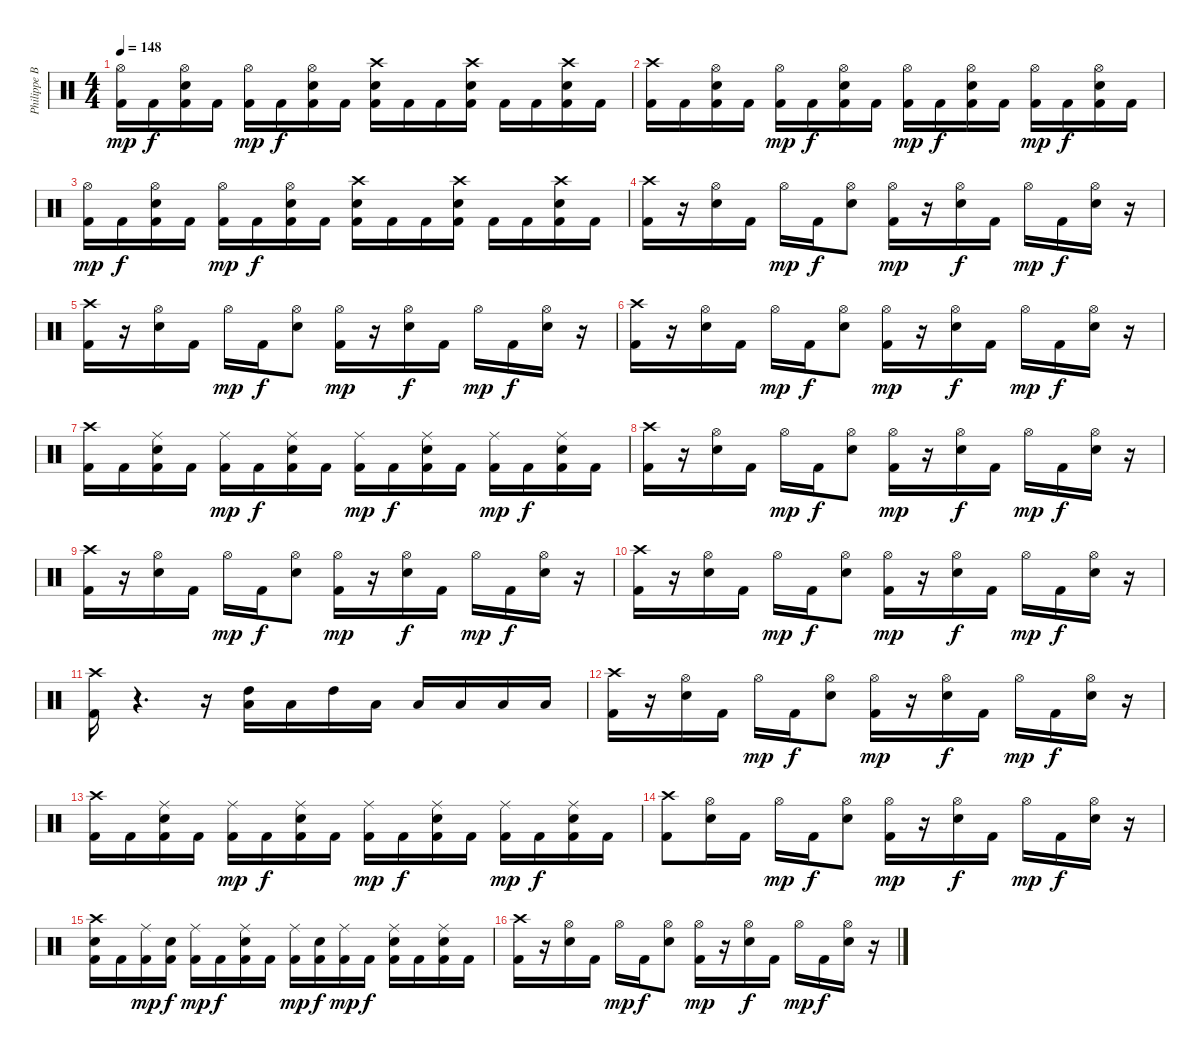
\track ("Philippe Borda" "Philippe B") {instrument percussion}
\staff {score}
\articulation defaults
\ts (4 4)
\tempo 148
\clef neutral
\ks c
("Kick (hit) 2" "Hi-Hat (open)").16{dy mp} "Kick (hit) 2".16{dy f} ("Kick (hit) 2" "Snare (hit) 2" "Hi-Hat (open)").16 "Kick (hit) 2".16 ("Kick (hit) 2" "Hi-Hat (open)").16{dy mp} "Kick (hit) 2".16{dy f} ("Kick (hit) 2" "Hi-Hat (open)" "Snare (hit) 2").16 "Kick (hit) 2".16 ("Crash high (hit)" "Kick (hit) 2" "Snare (hit) 2").16 "Kick (hit) 2".16 "Kick (hit) 2".16 ("Crash high (hit)" "Kick (hit) 2" "Snare (hit) 2").16 "Kick (hit) 2".16 "Kick (hit) 2".16 ("Crash high (hit)" "Kick (hit) 2" "Snare (hit) 2").16 "Kick (hit) 2".16 |
("Crash high (hit)" "Kick (hit) 2").16 "Kick (hit) 2".16 ("Kick (hit) 2" "Snare (hit) 2" "Hi-Hat (open)").16 "Kick (hit) 2".16 ("Kick (hit) 2" "Hi-Hat (open)").16{dy mp} "Kick (hit) 2".16{dy f} ("Kick (hit) 2" "Snare (hit) 2" "Hi-Hat (open)").16 "Kick (hit) 2".16 ("Kick (hit) 2" "Hi-Hat (open)").16{dy mp} "Kick (hit) 2".16{dy f} ("Kick (hit) 2" "Snare (hit) 2" "Hi-Hat (open)").16 "Kick (hit) 2".16 ("Kick (hit) 2" "Hi-Hat (open)").16{dy mp} "Kick (hit) 2".16{dy f} ("Kick (hit) 2" "Snare (hit) 2" "Hi-Hat (open)").16 "Kick (hit) 2".16 |
("Kick (hit) 2" "Hi-Hat (open)").16{dy mp} "Kick (hit) 2".16{dy f} ("Kick (hit) 2" "Snare (hit) 2" "Hi-Hat (open)").16 "Kick (hit) 2".16 ("Kick (hit) 2" "Hi-Hat (open)").16{dy mp} "Kick (hit) 2".16{dy f} ("Kick (hit) 2" "Hi-Hat (open)" "Snare (hit) 2").16 "Kick (hit) 2".16 ("Crash high (hit)" "Kick (hit) 2" "Snare (hit) 2").16 "Kick (hit) 2".16 "Kick (hit) 2".16 ("Crash high (hit)" "Kick (hit) 2" "Snare (hit) 2").16 "Kick (hit) 2".16 "Kick (hit) 2".16 ("Crash high (hit)" "Kick (hit) 2" "Snare (hit) 2").16 "Kick (hit) 2".16 |
("Crash high (hit)" "Kick (hit) 2").16 r.16 ("Hi-Hat (open)" "Snare (hit) 2").16 "Kick (hit) 2".16 "Hi-Hat (open)".16{dy mp} "Kick (hit) 2".16{dy f} ("Hi-Hat (open)" "Snare (hit) 2").8 ("Hi-Hat (open)" "Kick (hit) 2").16{dy mp} r.16 ("Hi-Hat (open)" "Snare (hit) 2").16{dy f} "Kick (hit) 2".16 "Hi-Hat (open)".16{dy mp} "Kick (hit) 2".16{dy f} ("Hi-Hat (open)" "Snare (hit) 2").16 r.16 |
("Crash high (hit)" "Kick (hit) 2").16 r.16 ("Snare (hit) 2" "Hi-Hat (open)").16 "Kick (hit) 2".16 "Hi-Hat (open)".16{dy mp} "Kick (hit) 2".16{dy f} ("Snare (hit) 2" "Hi-Hat (open)").8 ("Kick (hit) 2" "Hi-Hat (open)").16{dy mp} r.16 ("Snare (hit) 2" "Hi-Hat (open)").16{dy f} "Kick (hit) 2".16 "Hi-Hat (open)".16{dy mp} "Kick (hit) 2".16{dy f} ("Snare (hit) 2" "Hi-Hat (open)").16 r.16 |
("Crash high (hit)" "Kick (hit) 2").16 r.16 ("Snare (hit) 2" "Hi-Hat (open)").16 "Kick (hit) 2".16 "Hi-Hat (open)".16{dy mp} "Kick (hit) 2".16{dy f} ("Snare (hit) 2" "Hi-Hat (open)").8 ("Kick (hit) 2" "Hi-Hat (open)").16{dy mp} r.16 ("Snare (hit) 2" "Hi-Hat (open)").16{dy f} "Kick (hit) 2".16 "Hi-Hat (open)".16{dy mp} "Kick (hit) 2".16{dy f} ("Snare (hit) 2" "Hi-Hat (open)").16 r.16 |
("Crash high (hit)" "Kick (hit) 2").16 "Kick (hit) 2".16 ("Kick (hit) 2" "Ride (middle)" "Snare (hit) 2").16 "Kick (hit) 2".16 ("Kick (hit) 2" "Ride (middle)").16{dy mp} "Kick (hit) 2".16{dy f} ("Kick (hit) 2" "Ride (middle)" "Snare (hit) 2").16 "Kick (hit) 2".16 ("Kick (hit) 2" "Ride (middle)").16{dy mp} "Kick (hit) 2".16{dy f} ("Kick (hit) 2" "Ride (middle)" "Snare (hit) 2").16 "Kick (hit) 2".16 ("Kick (hit) 2" "Ride (middle)").16{dy mp} "Kick (hit) 2".16{dy f} ("Kick (hit) 2" "Ride (middle)" "Snare (hit) 2").16 "Kick (hit) 2".16 |
("Crash high (hit)" "Kick (hit) 2").16 r.16 ("Snare (hit) 2" "Hi-Hat (open)").16 "Kick (hit) 2".16 "Hi-Hat (open)".16{dy mp} "Kick (hit) 2".16{dy f} ("Snare (hit) 2" "Hi-Hat (open)").8 ("Kick (hit) 2" "Hi-Hat (open)").16{dy mp} r.16 ("Snare (hit) 2" "Hi-Hat (open)").16{dy f} "Kick (hit) 2".16 "Hi-Hat (open)".16{dy mp} "Kick (hit) 2".16{dy f} ("Snare (hit) 2" "Hi-Hat (open)").16 r.16 |
("Crash high (hit)" "Kick (hit) 2").16 r.16 ("Snare (hit) 2" "Hi-Hat (open)").16 "Kick (hit) 2".16 "Hi-Hat (open)".16{dy mp} "Kick (hit) 2".16{dy f} ("Snare (hit) 2" "Hi-Hat (open)").8 ("Kick (hit) 2" "Hi-Hat (open)").16{dy mp} r.16 ("Snare (hit) 2" "Hi-Hat (open)").16{dy f} "Kick (hit) 2".16 "Hi-Hat (open)".16{dy mp} "Kick (hit) 2".16{dy f} ("Snare (hit) 2" "Hi-Hat (open)").16 r.16 |
("Crash high (hit)" "Kick (hit) 2").16 r.16 ("Snare (hit) 2" "Hi-Hat (open)").16 "Kick (hit) 2".16 "Hi-Hat (open)".16{dy mp} "Kick (hit) 2".16{dy f} ("Snare (hit) 2" "Hi-Hat (open)").8 ("Kick (hit) 2" "Hi-Hat (open)").16{dy mp} r.16 ("Snare (hit) 2" "Hi-Hat (open)").16{dy f} "Kick (hit) 2".16 "Hi-Hat (open)".16{dy mp} "Kick (hit) 2".16{dy f} ("Snare (hit) 2" "Hi-Hat (open)").16 r.16 |
("Crash high (hit)" "Kick (hit) 2").16 r.4{d} r.16 ("Low Tom (hit)" "High Tom (hit)").16 "Low Tom (hit)".16 "High Tom (hit)".16 "Low Tom (hit)".16 "Low Floor Tom (hit)".16 "Low Floor Tom (hit)".16 "Low Floor Tom (hit)".16 "Low Floor Tom (hit)".16 |
("Crash high (hit)" "Kick (hit) 2").16 r.16 ("Hi-Hat (open)" "Snare (hit) 2").16 "Kick (hit) 2".16 "Hi-Hat (open)".16{dy mp} "Kick (hit) 2".16{dy f} ("Hi-Hat (open)" "Snare (hit) 2").8 ("Hi-Hat (open)" "Kick (hit) 2").16{dy mp} r.16 ("Hi-Hat (open)" "Snare (hit) 2").16{dy f} "Kick (hit) 2".16 "Hi-Hat (open)".16{dy mp} "Kick (hit) 2".16{dy f} ("Hi-Hat (open)" "Snare (hit) 2").16 r.16 |
("Crash high (hit)" "Kick (hit) 2").16 "Kick (hit) 2".16 ("Kick (hit) 2" "Ride (middle)" "Snare (hit) 2").16 "Kick (hit) 2".16 ("Kick (hit) 2" "Ride (middle)").16{dy mp} "Kick (hit) 2".16{dy f} ("Kick (hit) 2" "Ride (middle)" "Snare (hit) 2").16 "Kick (hit) 2".16 ("Kick (hit) 2" "Ride (middle)").16{dy mp} "Kick (hit) 2".16{dy f} ("Kick (hit) 2" "Ride (middle)" "Snare (hit) 2").16 "Kick (hit) 2".16 ("Kick (hit) 2" "Ride (middle)").16{dy mp} "Kick (hit) 2".16{dy f} ("Kick (hit) 2" "Ride (middle)" "Snare (hit) 2").16 "Kick (hit) 2".16 |
("Crash high (hit)" "Kick (hit) 2").8 ("Snare (hit) 2" "Hi-Hat (open)").16 "Kick (hit) 2".16 "Hi-Hat (open)".16{dy mp} "Kick (hit) 2".16{dy f} ("Snare (hit) 2" "Hi-Hat (open)").8 ("Kick (hit) 2" "Hi-Hat (open)").16{dy mp} r.16 ("Snare (hit) 2" "Hi-Hat (open)").16{dy f} "Kick (hit) 2".16 "Hi-Hat (open)".16{dy mp} "Kick (hit) 2".16{dy f} ("Snare (hit) 2" "Hi-Hat (open)").16 r.16 |
("Crash high (hit)" "Kick (hit) 2" "Snare (hit) 2").16 "Kick (hit) 2".16 ("Kick (hit) 2" "Ride (middle)").16{dy mp} ("Snare (hit) 2" "Kick (hit) 2").16{dy f} ("Kick (hit) 2" "Ride (middle)").16{dy mp} "Kick (hit) 2".16{dy f} ("Kick (hit) 2" "Snare (hit) 2" "Ride (middle)").16 "Kick (hit) 2".16 ("Kick (hit) 2" "Ride (middle)").16{dy mp} ("Snare (hit) 2" "Kick (hit) 2").16{dy f} ("Kick (hit) 2" "Ride (middle)").16{dy mp} "Kick (hit) 2".16{dy f} ("Kick (hit) 2" "Snare (hit) 2" "Ride (middle)").16 "Kick (hit) 2".16 ("Kick (hit) 2" "Snare (hit) 2" "Ride (middle)").16 "Kick (hit) 2".16 |
("Crash high (hit)" "Kick (hit) 2").16 r.16 ("Snare (hit) 2" "Hi-Hat (open)").16 "Kick (hit) 2".16 "Hi-Hat (open)".16{dy mp} "Kick (hit) 2".16{dy f} ("Snare (hit) 2" "Hi-Hat (open)").8 ("Kick (hit) 2" "Hi-Hat (open)").16{dy mp} r.16 ("Snare (hit) 2" "Hi-Hat (open)").16{dy f} "Kick (hit) 2".16 "Hi-Hat (open)".16{dy mp} "Kick (hit) 2".16{dy f} ("Snare (hit) 2" "Hi-Hat (open)").16 r.16
